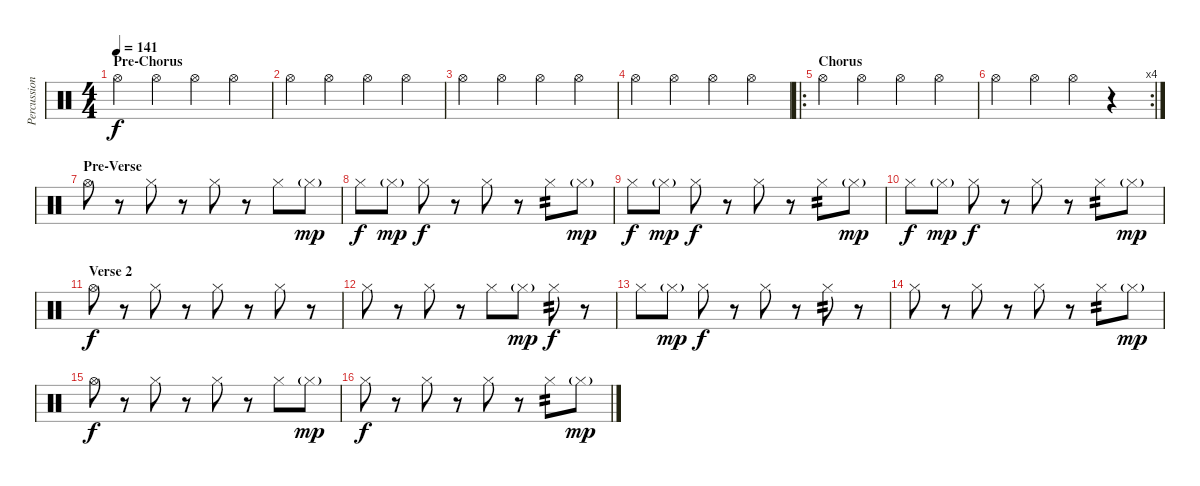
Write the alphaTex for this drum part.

\track ("Percussion" "Percussion") {instrument percussion}
\staff {score}
\articulation defaults
\ts (4 4)
\section ("" "Pre-Chorus")
\tempo 141
\clef neutral
\ks c "Hi-Hat (open)".4{dy f volume 6} "Hi-Hat (open)".4{volume 6} "Hi-Hat (open)".4{volume 6} "Hi-Hat (open)".4{volume 6}
|
"Hi-Hat (open)".4{volume 8} "Hi-Hat (open)".4{volume 8} "Hi-Hat (open)".4{volume 8} "Hi-Hat (open)".4{volume 10} |
"Hi-Hat (open)".4{volume 10} "Hi-Hat (open)".4{volume 11} "Hi-Hat (open)".4{volume 12} "Hi-Hat (open)".4{volume 12} |
"Hi-Hat (open)".4{volume 14} "Hi-Hat (open)".4{volume 14} "Hi-Hat (open)".4{volume 15} "Hi-Hat (open)".4{volume 16} |
\ro
\section ("" "Chorus")
"Hi-Hat (open)".4 "Hi-Hat (open)".4 "Hi-Hat (open)".4 "Hi-Hat (open)".4 |
\rc 4 "Hi-Hat (open)".4 "Hi-Hat (open)".4 "Hi-Hat (open)".4
r.4 |
\section ("" "Pre-Verse")
"Hi-Hat (open)".8 r.8 "Hi-Hat (closed)".8 r.8 "Hi-Hat (closed)".8 r.8 "Hi-Hat (closed)".8 "Hi-Hat (closed)"{g}.8{dy mp} |
"Hi-Hat (closed)".8{dy f} "Hi-Hat (closed)"{g}.8{dy mp} "Hi-Hat (closed)".8{dy f} r.8 "Hi-Hat (closed)".8 r.8 "Hi-Hat (closed)".8{tp 2} "Hi-Hat (closed)"{g}.8{dy mp} |
"Hi-Hat (closed)".8{dy f} "Hi-Hat (closed)"{g}.8{dy mp} "Hi-Hat (closed)".8{dy f} r.8 "Hi-Hat (closed)".8 r.8 "Hi-Hat (closed)".8{tp 2} "Hi-Hat (closed)"{g}.8{dy mp} |
"Hi-Hat (closed)".8{dy f} "Hi-Hat (closed)"{g}.8{dy mp} "Hi-Hat (closed)".8{dy f} r.8 "Hi-Hat (closed)".8 r.8 "Hi-Hat (closed)".8{tp 2} "Hi-Hat (closed)"{g}.8{dy mp} |
\section ("" "Verse 2")
"Hi-Hat (open)".8{dy f} r.8 "Hi-Hat (closed)".8 r.8 "Hi-Hat (closed)".8 r.8 "Hi-Hat (closed)".8 r.8 |
"Hi-Hat (closed)".8 r.8 "Hi-Hat (closed)".8 r.8 "Hi-Hat (closed)".8 "Hi-Hat (closed)"{g}.8{dy mp} "Hi-Hat (closed)".8{tp 2 dy f} r.8 |
"Hi-Hat (closed)".8 "Hi-Hat (closed)"{g}.8{dy mp} "Hi-Hat (closed)".8{dy f} r.8 "Hi-Hat (closed)".8 r.8 "Hi-Hat (closed)".8{tp 2} r.8 |
"Hi-Hat (closed)".8 r.8 "Hi-Hat (closed)".8 r.8 "Hi-Hat (closed)".8 r.8 "Hi-Hat (closed)".8{tp 2} "Hi-Hat (closed)"{g}.8{dy mp} |
"Hi-Hat (open)".8{dy f} r.8 "Hi-Hat (closed)".8 r.8 "Hi-Hat (closed)".8 r.8 "Hi-Hat (closed)".8 "Hi-Hat (closed)"{g}.8{dy mp} |
"Hi-Hat (closed)".8{dy f} r.8 "Hi-Hat (closed)".8 r.8 "Hi-Hat (closed)".8 r.8 "Hi-Hat (closed)".8{tp 2} "Hi-Hat (closed)"{g}.8{dy mp}
